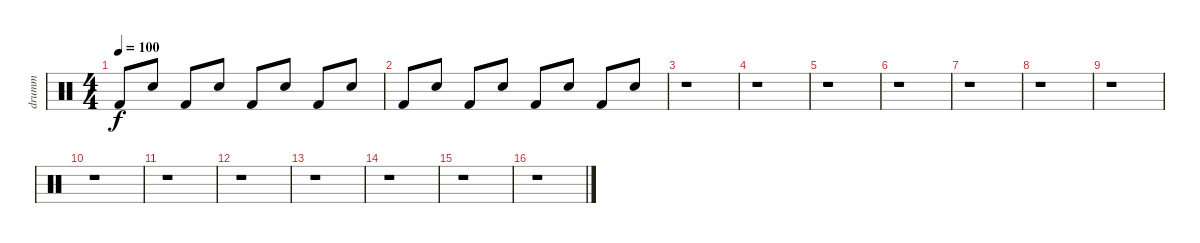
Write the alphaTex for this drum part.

\track ("drumm" "drumm") {instrument percussion}
\staff {score}
\articulation defaults
\ts (4 4)
\tempo 100
\clef neutral
\ks c "Kick (hit) 2".8{dy f} "Snare (hit) 2".8 "Kick (hit) 2".8 "Snare (hit) 2".8 "Kick (hit) 2".8 "Snare (hit) 2".8 "Kick (hit) 2".8 "Snare (hit) 2".8
|
"Kick (hit) 2".8 "Snare (hit) 2".8 "Kick (hit) 2".8 "Snare (hit) 2".8 "Kick (hit) 2".8 "Snare (hit) 2".8 "Kick (hit) 2".8 "Snare (hit) 2".8 |
r.1 |
r.1 |
r.1 |
r.1 |
r.1 |
r.1 |
r.1 |
r.1 |
r.1 |
r.1 |
r.1 |
r.1 |
r.1 |
r.1
